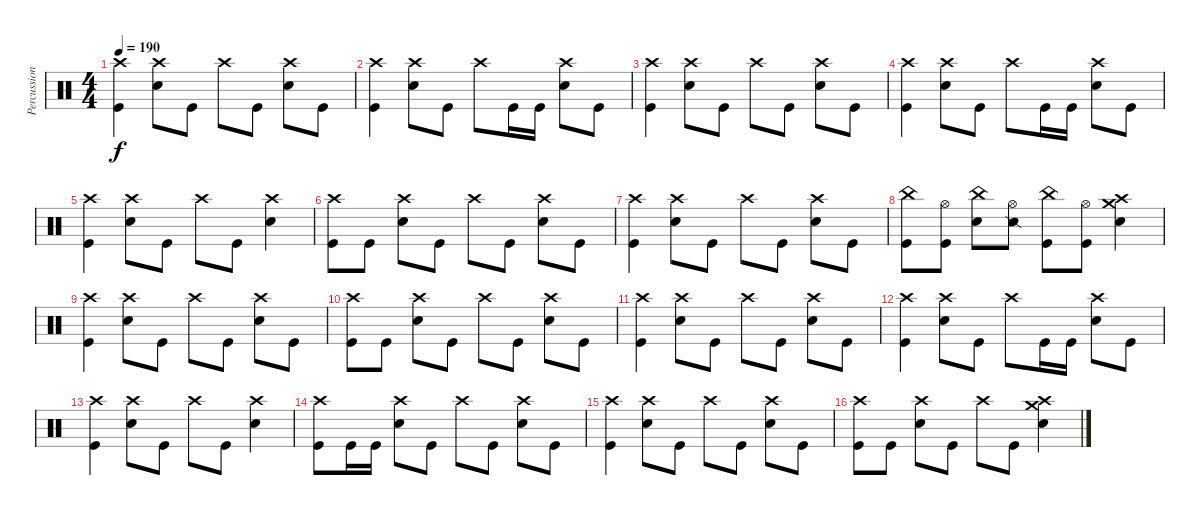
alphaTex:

\track ("Percussions" "Percussion") {instrument percussion}
\staff {score}
\articulation defaults
\ts (4 4)
\tempo 190
\clef neutral
\ks c
("Crash high (hit)" "Kick (hit)").4{dy f} ("Crash high (hit)" "Snare (hit) 2").8 "Kick (hit)".8 "Crash high (hit)".8 "Kick (hit)".8 ("Crash high (hit)" "Snare (hit) 2").8 "Kick (hit)".8 |
("Crash high (hit)" "Kick (hit)").4 ("Crash high (hit)" "Snare (hit) 2").8 "Kick (hit)".8 "Crash high (hit)".8 "Kick (hit)".16 "Kick (hit)".16 ("Crash high (hit)" "Snare (hit) 2").8 "Kick (hit)".8 |
("Crash high (hit)" "Kick (hit)").4 ("Crash high (hit)" "Snare (hit) 2").8 "Kick (hit)".8 "Crash high (hit)".8 "Kick (hit)".8 ("Crash high (hit)" "Snare (hit) 2").8 "Kick (hit)".8 |
("Crash high (hit)" "Kick (hit)").4 ("Crash high (hit)" "Snare (hit) 2").8 "Kick (hit)".8 "Crash high (hit)".8 "Kick (hit)".16 "Kick (hit)".16 ("Crash high (hit)" "Snare (hit) 2").8 "Kick (hit)".8 |
("Crash high (hit)" "Kick (hit)").4 ("Crash high (hit)" "Snare (hit) 2").8 "Kick (hit)".8 "Crash high (hit)".8 "Kick (hit)".8 ("Crash high (hit)" "Snare (hit) 2").4 |
("Crash high (hit)" "Kick (hit)").8 "Kick (hit)".8 ("Crash high (hit)" "Snare (hit) 2").8 "Kick (hit)".8 "Crash high (hit)".8 "Kick (hit)".8 ("Crash high (hit)" "Snare (hit) 2").8 "Kick (hit)".8 |
("Crash high (hit)" "Kick (hit)").4 ("Crash high (hit)" "Snare (hit) 2").8 "Kick (hit)".8 "Crash high (hit)".8 "Kick (hit)".8 ("Crash high (hit)" "Snare (hit) 2").8 "Kick (hit)".8 |
("China (hit)" "Kick (hit)").8 ("Hi-Hat (open)" "Kick (hit)").8 ("China (hit)" "Snare (hit) 2").8 ("Hi-Hat (open)" "Snare (side stick) 2").8 ("China (hit)" "Kick (hit)").8 ("Hi-Hat (open)" "Kick (hit)").8 ("Crash medium (hit)" "Crash high (hit)" "Snare (hit) 2").4 |
("Crash high (hit)" "Kick (hit)").4 ("Crash high (hit)" "Snare (hit) 2").8 "Kick (hit)".8 "Crash high (hit)".8 "Kick (hit)".8 ("Crash high (hit)" "Snare (hit) 2").8 "Kick (hit)".8 |
("Crash high (hit)" "Kick (hit)").8 "Kick (hit)".8 ("Crash high (hit)" "Snare (hit) 2").8 "Kick (hit)".8 "Crash high (hit)".8 "Kick (hit)".8 ("Crash high (hit)" "Snare (hit) 2").8 "Kick (hit)".8 |
("Crash high (hit)" "Kick (hit)").4 ("Crash high (hit)" "Snare (hit) 2").8 "Kick (hit)".8 "Crash high (hit)".8 "Kick (hit)".8 ("Crash high (hit)" "Snare (hit) 2").8 "Kick (hit)".8 |
("Crash high (hit)" "Kick (hit)").4 ("Crash high (hit)" "Snare (hit) 2").8 "Kick (hit)".8 "Crash high (hit)".8 "Kick (hit)".16 "Kick (hit)".16 ("Crash high (hit)" "Snare (hit) 2").8 "Kick (hit)".8 |
("Crash high (hit)" "Kick (hit)").4 ("Crash high (hit)" "Snare (hit) 2").8 "Kick (hit)".8 "Crash high (hit)".8 "Kick (hit)".8 ("Crash high (hit)" "Snare (hit) 2").4 |
("Crash high (hit)" "Kick (hit)").8 "Kick (hit)".16 "Kick (hit)".16 ("Crash high (hit)" "Snare (hit) 2").8 "Kick (hit)".8 "Crash high (hit)".8 "Kick (hit)".8 ("Crash high (hit)" "Snare (hit) 2").8 "Kick (hit)".8 |
("Crash high (hit)" "Kick (hit)").4 ("Crash high (hit)" "Snare (hit) 2").8 "Kick (hit)".8 "Crash high (hit)".8 "Kick (hit)".8 ("Crash high (hit)" "Snare (hit) 2").8 "Kick (hit)".8 |
("Crash high (hit)" "Kick (hit)").8 "Kick (hit)".8 ("Crash high (hit)" "Snare (hit) 2").8 "Kick (hit)".8 "Crash high (hit)".8 "Kick (hit)".8 ("Crash medium (hit)" "Crash high (hit)" "Snare (hit) 2").4
